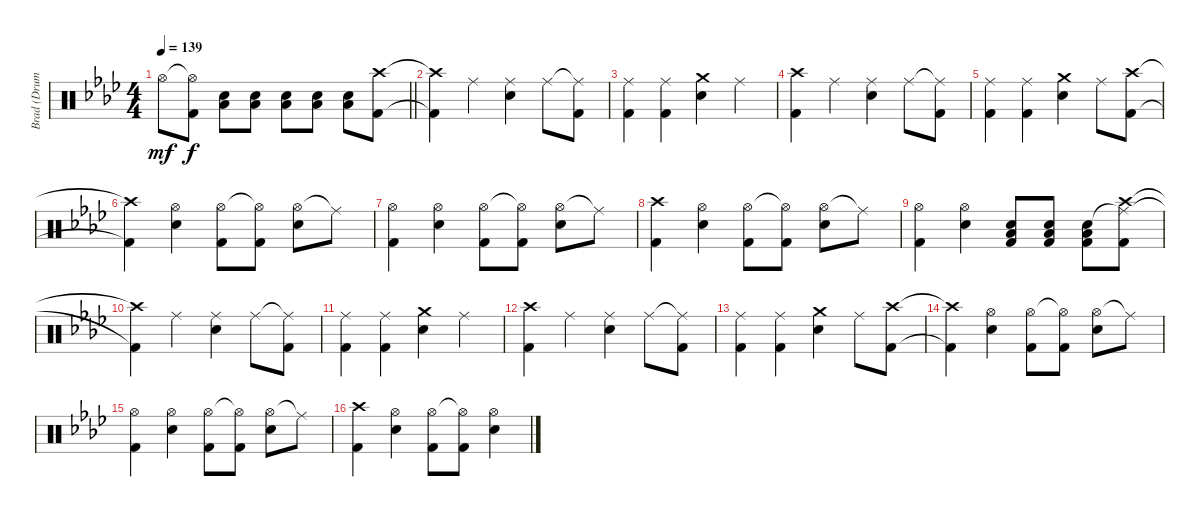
\track ("Brad (Drums)" "Brad (Drum") {instrument percussion}
\staff {score}
\articulation defaults
\ts (4 4)
\tempo 139
\clef neutral
\barLineRight lightlight
\ks ab "Hi-Hat (open)".8{dy mf}
("Hi-Hat (open)"{t} "Kick (hit) 2").8{dy f} ("Low Tom (hit)" "Snare (hit) 2").8 ("Low Tom (hit)" "Snare (hit) 2").8 ("Low Tom (hit)" "Snare (hit) 2").8 ("Low Tom (hit)" "Snare (hit) 2").8 ("Low Tom (hit)" "Snare (hit) 2").8 ("Crash high (hit)" "Kick (hit) 2").8 |
("Crash high (hit)"{t} "Kick (hit) 2"{t}).4 "Ride (middle)".4 ("Ride (middle)" "Snare (hit) 2").4 "Ride (middle)".8 ("Ride (middle)"{t} "Kick (hit) 2").8 |
("Ride (middle)" "Kick (hit) 2").4 ("Ride (middle)" "Kick (hit) 2").4 ("Crash medium (hit)" "Snare (hit) 2").4 "Ride (middle)".4 |
("Crash high (hit)" "Kick (hit) 2").4 "Ride (middle)".4 ("Ride (middle)" "Snare (hit) 2").4 "Ride (middle)".8 ("Ride (middle)"{t} "Kick (hit) 2").8 |
("Ride (middle)" "Kick (hit) 2").4 ("Ride (middle)" "Kick (hit) 2").4 ("Crash medium (hit)" "Snare (hit) 2").4 "Ride (middle)".8 ("Crash high (hit)" "Kick (hit) 2").8 |
("Crash high (hit)"{t} "Kick (hit) 2"{t}).4 ("Hi-Hat (open)" "Snare (hit) 2").4 ("Hi-Hat (open)" "Kick (hit) 2").8 ("Hi-Hat (open)"{t} "Kick (hit) 2").8 ("Hi-Hat (open)" "Snare (hit) 2").8 "Ride (middle)"{t}.8 |
("Hi-Hat (open)" "Kick (hit) 2").4 ("Hi-Hat (open)" "Snare (hit) 2").4 ("Hi-Hat (open)" "Kick (hit) 2").8 ("Hi-Hat (open)"{t} "Kick (hit) 2").8 ("Hi-Hat (open)" "Snare (hit) 2").8 "Ride (middle)"{t}.8 |
("Crash high (hit)" "Kick (hit) 2").4 ("Hi-Hat (open)" "Snare (hit) 2").4 ("Hi-Hat (open)" "Kick (hit) 2").8 ("Hi-Hat (open)"{t} "Kick (hit) 2").8 ("Hi-Hat (open)" "Snare (hit) 2").8 "Ride (middle)"{t}.8 |
("Hi-Hat (open)" "Kick (hit) 2").4 ("Hi-Hat (open)" "Snare (hit) 2").4 ("Low Tom (hit)" "Snare (hit) 2" "Kick (hit) 2").8 ("Low Tom (hit)" "Snare (hit) 2" "Kick (hit) 2").8 ("Low Tom (hit)" "Snare (hit) 2" "Kick (hit) 2").8 ("Crash high (hit)" "Ride (middle)"{t} "Kick (hit) 2").8 |
("Crash high (hit)"{t} "Kick (hit) 2"{t}).4 "Ride (middle)".4 ("Ride (middle)" "Snare (hit) 2").4 "Ride (middle)".8 ("Ride (middle)"{t} "Kick (hit) 2").8 |
("Ride (middle)" "Kick (hit) 2").4 ("Ride (middle)" "Kick (hit) 2").4 ("Crash medium (hit)" "Snare (hit) 2").4 "Ride (middle)".4 |
("Crash high (hit)" "Kick (hit) 2").4 "Ride (middle)".4 ("Ride (middle)" "Snare (hit) 2").4 "Ride (middle)".8 ("Ride (middle)"{t} "Kick (hit) 2").8 |
("Ride (middle)" "Kick (hit) 2").4 ("Ride (middle)" "Kick (hit) 2").4 ("Crash medium (hit)" "Snare (hit) 2").4 "Ride (middle)".8 ("Crash high (hit)" "Kick (hit) 2").8 |
("Crash high (hit)"{t} "Kick (hit) 2"{t}).4 ("Hi-Hat (open)" "Snare (hit) 2").4 ("Hi-Hat (open)" "Kick (hit) 2").8 ("Hi-Hat (open)"{t} "Kick (hit) 2").8 ("Hi-Hat (open)" "Snare (hit) 2").8 "Ride (middle)"{t}.8 |
("Hi-Hat (open)" "Kick (hit) 2").4 ("Hi-Hat (open)" "Snare (hit) 2").4 ("Hi-Hat (open)" "Kick (hit) 2").8 ("Hi-Hat (open)"{t} "Kick (hit) 2").8 ("Hi-Hat (open)" "Snare (hit) 2").8 "Ride (middle)"{t}.8 |
("Crash high (hit)" "Kick (hit) 2").4 ("Hi-Hat (open)" "Snare (hit) 2").4 ("Hi-Hat (open)" "Kick (hit) 2").8 ("Hi-Hat (open)"{t} "Kick (hit) 2").8 ("Hi-Hat (open)" "Snare (hit) 2").4
